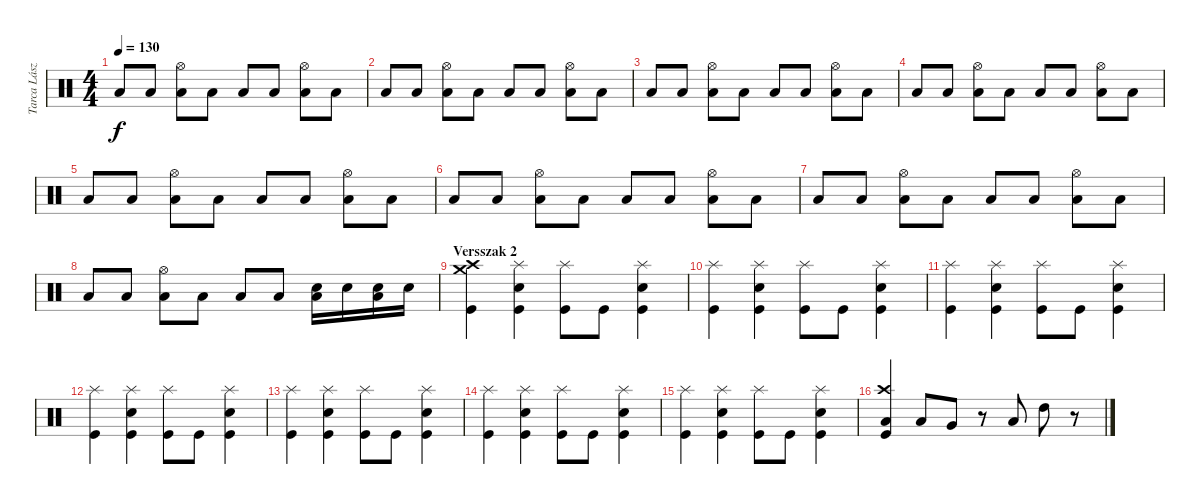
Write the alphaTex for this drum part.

\track ("Tarca László" "Tarca Lász") {instrument percussion}
\staff {score}
\articulation defaults
\ts (4 4)
\tempo 130
\clef neutral
\ks c "Low Tom (hit)".8{dy f} "Low Tom (hit)".8
("Low Tom (hit)" "Hi-Hat (open)").8 "Low Tom (hit)".8 "Low Tom (hit)".8 "Low Tom (hit)".8 ("Low Tom (hit)" "Hi-Hat (open)").8 "Low Tom (hit)".8 |
"Low Tom (hit)".8 "Low Tom (hit)".8 ("Low Tom (hit)" "Hi-Hat (open)").8 "Low Tom (hit)".8 "Low Tom (hit)".8 "Low Tom (hit)".8 ("Low Tom (hit)" "Hi-Hat (open)").8 "Low Tom (hit)".8 |
"Low Tom (hit)".8 "Low Tom (hit)".8 ("Low Tom (hit)" "Hi-Hat (open)").8 "Low Tom (hit)".8 "Low Tom (hit)".8 "Low Tom (hit)".8 ("Low Tom (hit)" "Hi-Hat (open)").8 "Low Tom (hit)".8 |
"Low Tom (hit)".8 "Low Tom (hit)".8 ("Low Tom (hit)" "Hi-Hat (open)").8 "Low Tom (hit)".8 "Low Tom (hit)".8 "Low Tom (hit)".8 ("Low Tom (hit)" "Hi-Hat (open)").8 "Low Tom (hit)".8 |
"Low Tom (hit)".8 "Low Tom (hit)".8 ("Low Tom (hit)" "Hi-Hat (open)").8 "Low Tom (hit)".8 "Low Tom (hit)".8 "Low Tom (hit)".8 ("Low Tom (hit)" "Hi-Hat (open)").8 "Low Tom (hit)".8 |
"Low Tom (hit)".8 "Low Tom (hit)".8 ("Low Tom (hit)" "Hi-Hat (open)").8 "Low Tom (hit)".8 "Low Tom (hit)".8 "Low Tom (hit)".8 ("Low Tom (hit)" "Hi-Hat (open)").8 "Low Tom (hit)".8 |
"Low Tom (hit)".8 "Low Tom (hit)".8 ("Low Tom (hit)" "Hi-Hat (open)").8 "Low Tom (hit)".8 "Low Tom (hit)".8 "Low Tom (hit)".8 ("Low Tom (hit)" "Hi-Hat (open)").8 "Low Tom (hit)".8 |
"Low Tom (hit)".8 "Low Tom (hit)".8 ("Low Tom (hit)" "Hi-Hat (open)").8 "Low Tom (hit)".8 "Low Tom (hit)".8 "Low Tom (hit)".8 ("Snare (hit) 2" "Low Tom (hit)").16 "Snare (hit) 2".16 ("Snare (hit) 2" "Low Tom (hit)").16 "Snare (hit) 2".16 |
\section ("" "Versszak 2")
("Crash high (hit)" "Crash medium (hit)" "Kick (hit)").4 ("Splash (hit)" "Snare (hit) 2" "Kick (hit)").4 ("Splash (hit)" "Kick (hit)").8 "Kick (hit)".8 ("Splash (hit)" "Snare (hit) 2" "Kick (hit)").4 |
("Splash (hit)" "Kick (hit)").4 ("Splash (hit)" "Snare (hit) 2" "Kick (hit)").4 ("Splash (hit)" "Kick (hit)").8 "Kick (hit)".8 ("Splash (hit)" "Snare (hit) 2" "Kick (hit)").4 |
("Splash (hit)" "Kick (hit)").4 ("Splash (hit)" "Snare (hit) 2" "Kick (hit)").4 ("Splash (hit)" "Kick (hit)").8 "Kick (hit)".8 ("Splash (hit)" "Snare (hit) 2" "Kick (hit)").4 |
("Splash (hit)" "Kick (hit)").4 ("Splash (hit)" "Snare (hit) 2" "Kick (hit)").4 ("Splash (hit)" "Kick (hit)").8 "Kick (hit)".8 ("Splash (hit)" "Snare (hit) 2" "Kick (hit)").4 |
("Splash (hit)" "Kick (hit)").4 ("Splash (hit)" "Snare (hit) 2" "Kick (hit)").4 ("Splash (hit)" "Kick (hit)").8 "Kick (hit)".8 ("Splash (hit)" "Snare (hit) 2" "Kick (hit)").4 |
("Splash (hit)" "Kick (hit)").4 ("Splash (hit)" "Snare (hit) 2" "Kick (hit)").4 ("Splash (hit)" "Kick (hit)").8 "Kick (hit)".8 ("Splash (hit)" "Snare (hit) 2" "Kick (hit)").4 |
("Splash (hit)" "Kick (hit)").4 ("Splash (hit)" "Snare (hit) 2" "Kick (hit)").4 ("Splash (hit)" "Kick (hit)").8 "Kick (hit)".8 ("Splash (hit)" "Snare (hit) 2" "Kick (hit)").4 |
("Crash high (hit)" "Low Tom (hit)" "Kick (hit)").4 "Low Floor Tom (hit)".8 "Very Low Tom (hit)".8 r.8 "Low Tom (hit)".8 "High Tom (hit)".8 r.8
